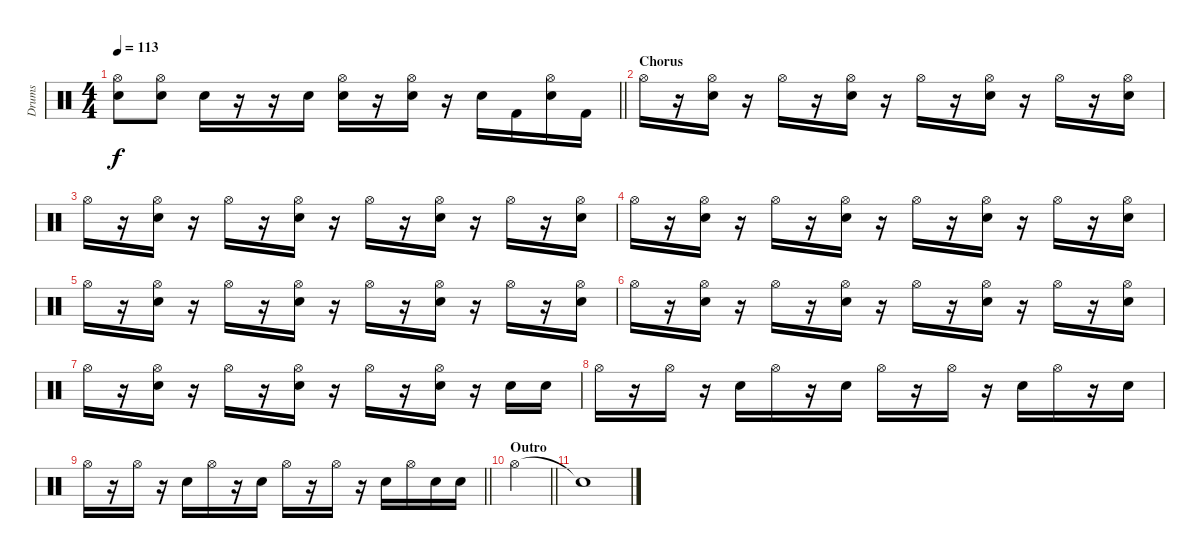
\track ("Drums" "Drums") {instrument percussion}
\staff {score}
\articulation defaults
\ts (4 4)
\tempo 113
\clef neutral
\barLineRight lightlight
\ks c
("Hi-Hat (open)" "Electric Snare (hit)").8{dy f} ("Hi-Hat (open)" "Electric Snare (hit)").8 "Electric Snare (hit)".16 r.16 r.16 "Electric Snare (hit)".16 ("Hi-Hat (open)" "Electric Snare (hit)").16 r.16 ("Hi-Hat (open)" "Electric Snare (hit)").16 r.16 "Electric Snare (hit)".16 "Kick (hit) 2".16 ("Hi-Hat (open)" "Electric Snare (hit)").16 "Kick (hit) 2".16 |
\section ("" "Chorus")
"Hi-Hat (open)".16 r.16 ("Hi-Hat (open)" "Electric Snare (hit)").16 r.16 "Hi-Hat (open)".16 r.16 ("Hi-Hat (open)" "Electric Snare (hit)").16 r.16 "Hi-Hat (open)".16 r.16 ("Hi-Hat (open)" "Electric Snare (hit)").16 r.16 "Hi-Hat (open)".16 r.16 ("Hi-Hat (open)" "Electric Snare (hit)").16 |
"Hi-Hat (open)".16 r.16 ("Hi-Hat (open)" "Electric Snare (hit)").16 r.16 "Hi-Hat (open)".16 r.16 ("Hi-Hat (open)" "Electric Snare (hit)").16 r.16 "Hi-Hat (open)".16 r.16 ("Hi-Hat (open)" "Electric Snare (hit)").16 r.16 "Hi-Hat (open)".16 r.16 ("Hi-Hat (open)" "Electric Snare (hit)").16 |
"Hi-Hat (open)".16 r.16 ("Hi-Hat (open)" "Electric Snare (hit)").16 r.16 "Hi-Hat (open)".16 r.16 ("Hi-Hat (open)" "Electric Snare (hit)").16 r.16 "Hi-Hat (open)".16 r.16 ("Hi-Hat (open)" "Electric Snare (hit)").16 r.16 "Hi-Hat (open)".16 r.16 ("Hi-Hat (open)" "Electric Snare (hit)").16 |
"Hi-Hat (open)".16 r.16 ("Hi-Hat (open)" "Electric Snare (hit)").16 r.16 "Hi-Hat (open)".16 r.16 ("Hi-Hat (open)" "Electric Snare (hit)").16 r.16 "Hi-Hat (open)".16 r.16 ("Hi-Hat (open)" "Electric Snare (hit)").16 r.16 "Hi-Hat (open)".16 r.16 ("Hi-Hat (open)" "Electric Snare (hit)").16 |
"Hi-Hat (open)".16 r.16 ("Hi-Hat (open)" "Electric Snare (hit)").16 r.16 "Hi-Hat (open)".16 r.16 ("Hi-Hat (open)" "Electric Snare (hit)").16 r.16 "Hi-Hat (open)".16 r.16 ("Hi-Hat (open)" "Electric Snare (hit)").16 r.16 "Hi-Hat (open)".16 r.16 ("Hi-Hat (open)" "Electric Snare (hit)").16 |
"Hi-Hat (open)".16 r.16 ("Hi-Hat (open)" "Electric Snare (hit)").16 r.16 "Hi-Hat (open)".16 r.16 ("Hi-Hat (open)" "Electric Snare (hit)").16 r.16 "Hi-Hat (open)".16 r.16 ("Hi-Hat (open)" "Electric Snare (hit)").16 r.16 "Electric Snare (hit)".16 "Electric Snare (hit)".16 |
"Hi-Hat (open)".16 r.16 "Hi-Hat (open)".16 r.16 "Electric Snare (hit)".16 "Hi-Hat (open)".16 r.16 "Electric Snare (hit)".16 "Hi-Hat (open)".16 r.16 "Hi-Hat (open)".16 r.16 "Electric Snare (hit)".16 "Hi-Hat (open)".16 r.16 "Electric Snare (hit)".16 |
\barLineRight lightlight "Hi-Hat (open)".16
r.16 "Hi-Hat (open)".16 r.16 "Electric Snare (hit)".16 "Hi-Hat (open)".16 r.16 "Electric Snare (hit)".16 "Hi-Hat (open)".16 r.16 "Hi-Hat (open)".16 r.16 "Electric Snare (hit)".16 "Hi-Hat (open)".16 "Electric Snare (hit)".16 "Electric Snare (hit)".16 |
\section ("" "Outro")
\barLineRight lightlight "Hi-Hat (open)".4
|
"Snare (hit)"{t}.1
